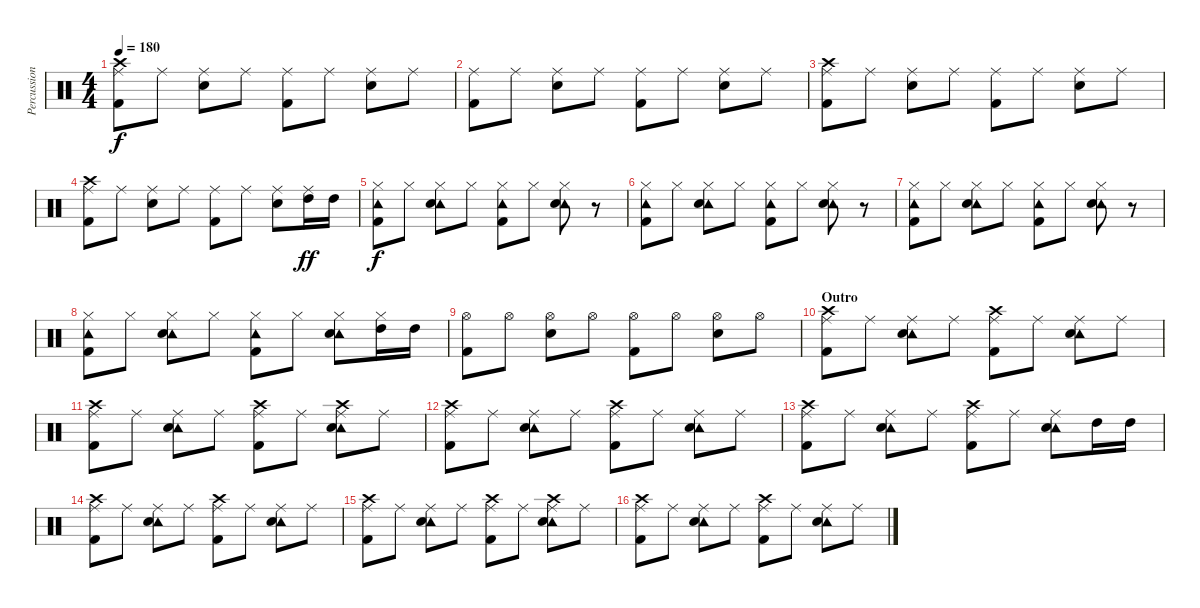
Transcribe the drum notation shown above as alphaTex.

\track ("Percussion" "Percussion") {instrument percussion}
\staff {score}
\articulation defaults
\ts (4 4)
\tempo 180
\clef neutral
\ks c
("Crash high (hit)" "Ride (middle)" "Kick (hit) 2").8{dy f} "Ride (middle)".8 ("Ride (middle)" "Electric Snare (hit)").8 "Ride (middle)".8 ("Ride (middle)" "Kick (hit) 2").8 "Ride (middle)".8 ("Ride (middle)" "Electric Snare (hit)").8 "Ride (middle)".8 |
("Ride (middle)" "Kick (hit) 2").8 "Ride (middle)".8 ("Ride (middle)" "Electric Snare (hit)").8 "Ride (middle)".8 ("Ride (middle)" "Kick (hit) 2").8 "Ride (middle)".8 ("Ride (middle)" "Electric Snare (hit)").8 "Ride (middle)".8 |
("Crash high (hit)" "Ride (middle)" "Kick (hit) 2").8 "Ride (middle)".8 ("Ride (middle)" "Electric Snare (hit)").8 "Ride (middle)".8 ("Ride (middle)" "Kick (hit) 2").8 "Ride (middle)".8 ("Ride (middle)" "Electric Snare (hit)").8 "Ride (middle)".8 |
("Crash high (hit)" "Ride (middle)" "Kick (hit) 2").8 "Ride (middle)".8 ("Ride (middle)" "Electric Snare (hit)").8 "Ride (middle)".8 ("Ride (middle)" "Kick (hit) 2").8 "Ride (middle)".8 ("Ride (middle)" "Electric Snare (hit)").8 ("Ride (middle)" "High Tom (hit)").16{dy ff} "High Tom (hit)".16 |
("Tambourine (hit)" "Hi-Hat (closed)" "Kick (hit) 2").8{dy f} "Hi-Hat (closed)".8 ("Tambourine (hit)" "Hi-Hat (closed)" "Electric Snare (hit)").8 "Hi-Hat (closed)".8 ("Tambourine (hit)" "Hi-Hat (closed)" "Kick (hit) 2").8 "Hi-Hat (closed)".8 ("Tambourine (hit)" "Hi-Hat (closed)" "Electric Snare (hit)").8 r.8 |
("Tambourine (hit)" "Hi-Hat (closed)" "Kick (hit) 2").8 "Hi-Hat (closed)".8 ("Tambourine (hit)" "Hi-Hat (closed)" "Electric Snare (hit)").8 "Hi-Hat (closed)".8 ("Tambourine (hit)" "Hi-Hat (closed)" "Kick (hit) 2").8 "Hi-Hat (closed)".8 ("Tambourine (hit)" "Hi-Hat (closed)" "Electric Snare (hit)").8 r.8 |
("Tambourine (hit)" "Hi-Hat (closed)" "Kick (hit) 2").8 "Hi-Hat (closed)".8 ("Tambourine (hit)" "Hi-Hat (closed)" "Electric Snare (hit)").8 "Hi-Hat (closed)".8 ("Tambourine (hit)" "Hi-Hat (closed)" "Kick (hit) 2").8 "Hi-Hat (closed)".8 ("Tambourine (hit)" "Hi-Hat (closed)" "Electric Snare (hit)").8 r.8 |
("Tambourine (hit)" "Hi-Hat (closed)" "Kick (hit) 2").8 "Hi-Hat (closed)".8 ("Tambourine (hit)" "Hi-Hat (closed)" "Electric Snare (hit)").8 "Hi-Hat (closed)".8 ("Tambourine (hit)" "Hi-Hat (closed)" "Kick (hit) 2").8 "Hi-Hat (closed)".8 ("Tambourine (hit)" "Hi-Hat (closed)" "Electric Snare (hit)").8 ("Hi-Hat (closed)" "High Tom (hit)").16 "High Tom (hit)".16 |
("Hi-Hat (open)" "Kick (hit) 2").8 "Hi-Hat (open)".8 ("Hi-Hat (open)" "Electric Snare (hit)").8 "Hi-Hat (open)".8 ("Hi-Hat (open)" "Kick (hit) 2").8 "Hi-Hat (open)".8 ("Hi-Hat (open)" "Electric Snare (hit)").8 "Hi-Hat (open)".8 |
\section ("" "Outro")
("Crash high (hit)" "Ride (middle)" "Kick (hit) 2").8 "Ride (middle)".8 ("Tambourine (hit)" "Ride (middle)" "Electric Snare (hit)").8 "Ride (middle)".8 ("Crash high (hit)" "Ride (middle)" "Kick (hit) 2").8 "Ride (middle)".8 ("Ride (middle)" "Tambourine (hit)" "Electric Snare (hit)").8 "Ride (middle)".8 |
("Crash high (hit)" "Ride (middle)" "Kick (hit) 2").8 "Ride (middle)".8 ("Tambourine (hit)" "Ride (middle)" "Electric Snare (hit)").8 "Ride (middle)".8 ("Crash high (hit)" "Ride (middle)" "Kick (hit) 2").8 "Ride (middle)".8 ("Crash high (hit)" "Ride (middle)" "Tambourine (hit)" "Electric Snare (hit)").8 "Ride (middle)".8 |
("Crash high (hit)" "Ride (middle)" "Kick (hit) 2").8 "Ride (middle)".8 ("Tambourine (hit)" "Ride (middle)" "Electric Snare (hit)").8 "Ride (middle)".8 ("Crash high (hit)" "Ride (middle)" "Kick (hit) 2").8 "Ride (middle)".8 ("Ride (middle)" "Tambourine (hit)" "Electric Snare (hit)").8 "Ride (middle)".8 |
("Crash high (hit)" "Ride (middle)" "Kick (hit) 2").8 "Ride (middle)".8 ("Tambourine (hit)" "Ride (middle)" "Electric Snare (hit)").8 "Ride (middle)".8 ("Crash high (hit)" "Ride (middle)" "Kick (hit) 2").8 "Ride (middle)".8 ("Ride (middle)" "Tambourine (hit)" "Electric Snare (hit)").8 "High Tom (hit)".16 "High Tom (hit)".16 |
("Crash high (hit)" "Ride (middle)" "Kick (hit) 2").8 "Ride (middle)".8 ("Tambourine (hit)" "Ride (middle)" "Electric Snare (hit)").8 "Ride (middle)".8 ("Crash high (hit)" "Ride (middle)" "Kick (hit) 2").8 "Ride (middle)".8 ("Ride (middle)" "Tambourine (hit)" "Electric Snare (hit)").8 "Ride (middle)".8 |
("Crash high (hit)" "Ride (middle)" "Kick (hit) 2").8 "Ride (middle)".8 ("Tambourine (hit)" "Ride (middle)" "Electric Snare (hit)").8 "Ride (middle)".8 ("Crash high (hit)" "Ride (middle)" "Kick (hit) 2").8 "Ride (middle)".8 ("Crash high (hit)" "Ride (middle)" "Tambourine (hit)" "Electric Snare (hit)").8 "Ride (middle)".8 |
("Crash high (hit)" "Ride (middle)" "Kick (hit) 2").8 "Ride (middle)".8 ("Tambourine (hit)" "Ride (middle)" "Electric Snare (hit)").8 "Ride (middle)".8 ("Crash high (hit)" "Ride (middle)" "Kick (hit) 2").8 "Ride (middle)".8 ("Ride (middle)" "Tambourine (hit)" "Electric Snare (hit)").8 "Ride (middle)".8
